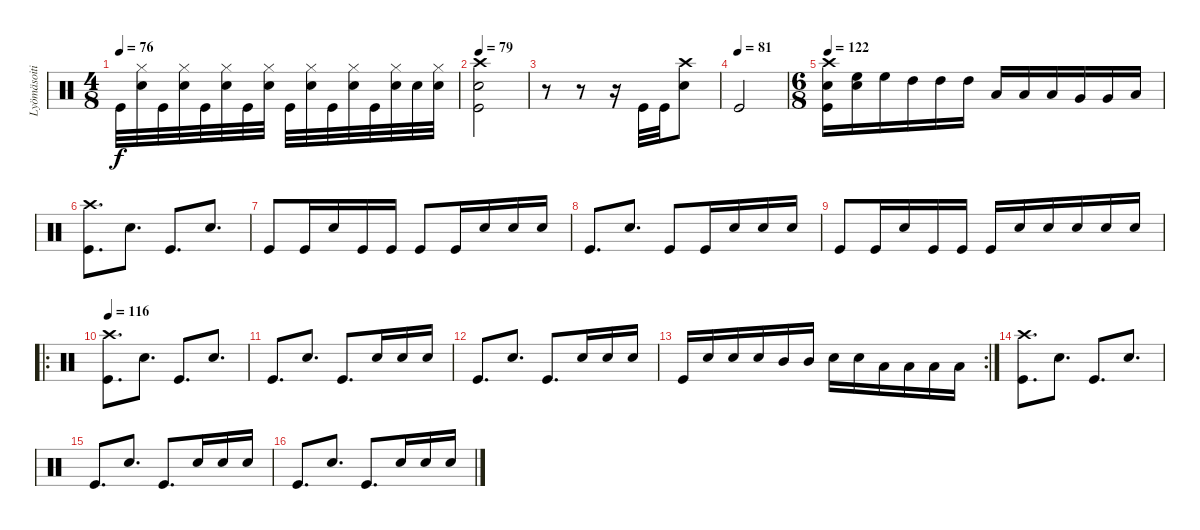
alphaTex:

\track ("Lyömäsoitin" "Lyömäsoiti") {instrument percussion}
\staff {score}
\articulation defaults
\ts (4 8)
\tempo 76
\clef neutral
\ks c "Kick (hit)".32{dy f}
("Snare (hit) 2" "Hi-Hat (closed)").32 "Kick (hit)".32 ("Snare (hit) 2" "Hi-Hat (closed)").32 "Kick (hit)".32 ("Snare (hit) 2" "Hi-Hat (closed)").32 "Kick (hit)".32 ("Snare (hit) 2" "Hi-Hat (closed)").32 "Kick (hit)".32 ("Snare (hit) 2" "Hi-Hat (closed)").32 "Kick (hit)".32 ("Snare (hit) 2" "Hi-Hat (closed)").32 "Kick (hit)".32 ("Snare (hit) 2" "Hi-Hat (closed)").32 "Snare (hit) 2".32 ("Snare (hit) 2" "Hi-Hat (closed)").32 |
\tempo 79
("Kick (hit)" "Snare (hit) 2" "Crash high (hit)").2 |
r.8 r.8 r.16 "Kick (hit)".32 "Kick (hit)".32 ("Snare (hit) 2" "Crash high (hit)").8 |
\tempo (81)
"Kick (hit)".2 |
\ts (6 8)
\tempo 122
("Kick (hit)" "Snare (hit) 2" "Crash high (hit)").16 ("High Floor Tom (hit)" "Snare (hit) 2").16 "High Floor Tom (hit)".16 "High Tom (hit)".16 "High Tom (hit)".16 "High Tom (hit)".16 "Low Tom (hit)".16 "Low Tom (hit)".16 "Low Tom (hit)".16 "Very Low Tom (hit)".16 "Very Low Tom (hit)".16 "Low Floor Tom (hit)".16 |
("Kick (hit)" "Crash high (hit)").8{d} "Snare (hit) 2".8{d} "Kick (hit)".8{d} "Snare (hit) 2".8{d} |
"Kick (hit)".8 "Kick (hit)".16 "Snare (hit) 2".16 "Kick (hit)".16 "Kick (hit)".16 "Kick (hit)".8 "Kick (hit)".16 "Snare (hit) 2".16 "Snare (hit) 2".16 "Snare (hit) 2".16 |
"Kick (hit)".8{d} "Snare (hit) 2".8{d} "Kick (hit)".8 "Kick (hit)".16 "Snare (hit) 2".16 "Snare (hit) 2".16 "Snare (hit) 2".16 |
"Kick (hit)".8 "Kick (hit)".16 "Snare (hit) 2".16 "Kick (hit)".16 "Kick (hit)".16 "Kick (hit)".16 "Snare (hit) 2".16 "Snare (hit) 2".16 "Snare (hit) 2".16 "Snare (hit) 2".16 "Snare (hit) 2".16 |
\ro
\tempo 116
("Kick (hit)" "Crash high (hit)").8{d} "Snare (hit) 2".8{d} "Kick (hit)".8{d} "Snare (hit) 2".8{d} |
"Kick (hit)".8{d} "Snare (hit) 2".8{d} "Kick (hit)".8{d} "Snare (hit) 2".16 "Snare (hit) 2".16 "Snare (hit) 2".16 |
"Kick (hit)".8{d} "Snare (hit) 2".8{d} "Kick (hit)".8{d} "Snare (hit) 2".16 "Snare (hit) 2".16 "Snare (hit) 2".16 |
\rc 2 "Kick (hit)".16 "Snare (hit) 2".16 "Snare (hit) 2".16 "Snare (hit) 2".16 "Mid Tom (hit)".16 "Mid Tom (hit)".16 "Snare (hit) 2".16 "Snare (hit) 2".16 "Low Tom (hit)".16 "Low Tom (hit)".16 "Low Tom (hit)".16 "Low Floor Tom (hit)".16
|
("Kick (hit)" "Crash high (hit)").8{d} "Snare (hit) 2".8{d} "Kick (hit)".8{d} "Snare (hit) 2".8{d} |
"Kick (hit)".8{d} "Snare (hit) 2".8{d} "Kick (hit)".8{d} "Snare (hit) 2".16 "Snare (hit) 2".16 "Snare (hit) 2".16 |
"Kick (hit)".8{d} "Snare (hit) 2".8{d} "Kick (hit)".8{d} "Snare (hit) 2".16 "Snare (hit) 2".16 "Snare (hit) 2".16
